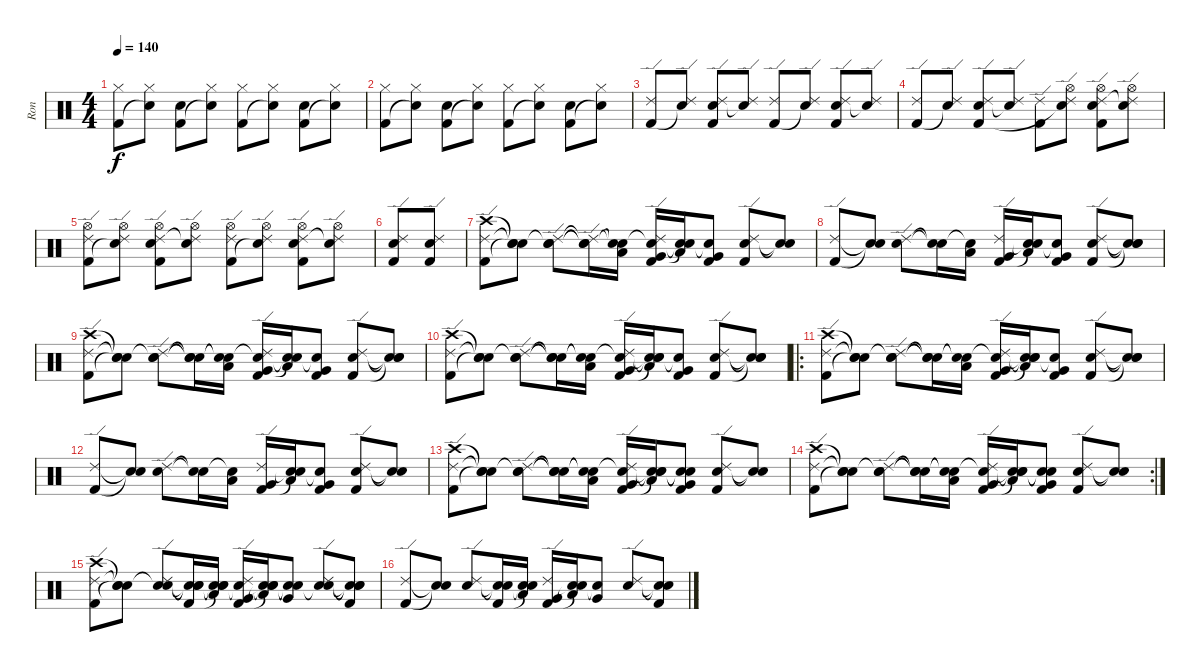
\track ("Ron" "Ron") {instrument percussion}
\staff {score}
\articulation defaults
\ts (4 4)
\tempo 140
\clef neutral
\ks c
("Hi-Hat (closed)" "Kick (hit) 2").8{dy f} ("Hi-Hat (closed)" "Snare (hit)"{t}).8 ("Electric Snare (hit)" "Kick (hit) 2").8 ("Hi-Hat (closed)" "Snare (hit)"{t}).8 ("Hi-Hat (closed)" "Kick (hit) 2").8 ("Hi-Hat (closed)" "Snare (hit)"{t}).8 ("Electric Snare (hit)" "Kick (hit) 2").8 ("Hi-Hat (closed)" "Snare (hit)"{t}).8 |
("Hi-Hat (closed)" "Kick (hit) 2").8 ("Hi-Hat (closed)" "Snare (hit)"{t}).8 ("Electric Snare (hit)" "Kick (hit) 2").8 ("Hi-Hat (closed)" "Snare (hit)"{t}).8 ("Hi-Hat (closed)" "Kick (hit) 2").8 ("Hi-Hat (closed)" "Snare (hit)"{t}).8 ("Electric Snare (hit)" "Kick (hit) 2").8 ("Hi-Hat (closed)" "Snare (hit)"{t}).8 |
("Ride (edge) 2" "Kick (hit) 2").8 ("Ride (edge) 2" "Snare (hit)"{t}).8 ("Electric Snare (hit)" "Ride (edge) 2" "Kick (hit) 2").8 ("Ride (edge) 2" "Snare (hit)"{t}).8 ("Ride (edge) 2" "Kick (hit) 2").8 ("Ride (edge) 2" "Snare (hit)"{t}).8 ("Electric Snare (hit)" "Ride (edge) 2" "Kick (hit) 2").8 ("Ride (edge) 2" "Snare (hit)"{t}).8 |
("Ride (edge) 2" "Kick (hit) 2").8 ("Ride (edge) 2" "Snare (hit)"{t}).8 ("Electric Snare (hit)" "Ride (edge) 2" "Kick (hit) 2").8 ("Ride (edge) 2" "Snare (hit)"{t}).8 ("Ride (edge) 2" "Kick (hit) 2").8 ("Hi-Hat (open)" "Ride (edge) 2" "Snare (hit)"{t}).8 ("Electric Snare (hit)" "Hi-Hat (open)" "Ride (edge) 2" "Kick (hit) 2").8 ("Hi-Hat (open)" "Ride (edge) 2" "Snare (hit)"{t}).8 |
("Hi-Hat (open)" "Ride (edge) 2" "Kick (hit) 2").8 ("Hi-Hat (open)" "Ride (edge) 2" "Snare (hit)"{t}).8 ("Electric Snare (hit)" "Hi-Hat (open)" "Ride (edge) 2" "Kick (hit) 2").8 ("Hi-Hat (open)" "Ride (edge) 2" "Snare (hit)"{t}).8 ("Hi-Hat (open)" "Ride (edge) 2" "Kick (hit) 2").8 ("Hi-Hat (open)" "Ride (edge) 2" "Snare (hit)"{t}).8 ("Electric Snare (hit)" "Hi-Hat (open)" "Ride (edge) 2" "Kick (hit) 2").8 ("Hi-Hat (open)" "Ride (edge) 2" "Snare (hit)"{t}).8 |
("Ride (edge) 2" "Electric Snare (hit)" "Kick (hit) 2").8 ("Ride (edge) 2" "Electric Snare (hit)" "Kick (hit) 2").8 |
("Crash high (hit)" "Ride (edge) 2" "Kick (hit) 2").8 ("Snare (hit)"{t} "Snare (hit)"{t} "Snare (hit)"{t}).8 ("Snare (hit)"{t} "Ride (edge) 2" "Snare (hit) 2").8 ("Snare (hit)"{t} "Ride (edge) 2"{t} "Snare (hit)"{t}).16 ("Snare (hit)"{t} "Snare (hit)"{t} "Low Tom (hit)").16 ("Snare (hit)"{t} "Ride (edge) 2" "Very Low Tom (hit)" "Kick (hit) 2").16 ("Snare (hit)"{t} "Low Tom (hit)" "Snare (hit)"{t}).16 ("Snare (hit)"{t} "Very Low Tom (hit)" "Kick (hit) 2").8 ("Ride (edge) 2" "Snare (hit) 2" "Kick (hit) 2").8 ("Snare (hit)"{t} "Snare (hit)"{t}).8 |
("Ride (edge) 2" "Kick (hit) 2").8 ("Snare (hit)"{t} "Snare (hit)"{t}).8 ("Ride (edge) 2" "Snare (hit) 2").8 ("Snare (hit)"{t} "Snare (hit)"{t}).16 ("Snare (hit)"{t} "Low Tom (hit)").16 ("Ride (edge) 2" "Very Low Tom (hit)" "Kick (hit) 2").16 ("Snare (hit)"{t} "Low Tom (hit)" "Snare (hit)"{t}).16 ("Snare (hit)"{t} "Very Low Tom (hit)" "Kick (hit) 2").8 ("Ride (edge) 2" "Snare (hit) 2" "Kick (hit) 2").8 ("Snare (hit)"{t} "Snare (hit)"{t} "Snare (hit)"{t}).8 |
("Crash high (hit)" "Ride (edge) 2" "Kick (hit) 2").8 ("Snare (hit)"{t} "Snare (hit)"{t} "Snare (hit)"{t}).8 ("Snare (hit)"{t} "Ride (edge) 2" "Snare (hit) 2").8 ("Snare (hit)"{t} "Snare (hit)"{t} "Snare (hit)"{t}).16 ("Snare (hit)"{t} "Snare (hit)"{t} "Low Tom (hit)").16 ("Snare (hit)"{t} "Ride (edge) 2" "Very Low Tom (hit)" "Kick (hit) 2").16 ("Snare (hit)"{t} "Low Tom (hit)" "Snare (hit)"{t}).16 ("Snare (hit)"{t} "Very Low Tom (hit)" "Kick (hit) 2").8 ("Ride (edge) 2" "Snare (hit) 2" "Kick (hit) 2").8 ("Snare (hit)"{t} "Snare (hit)"{t} "Snare (hit)"{t}).8 |
("Crash high (hit)" "Ride (edge) 2" "Kick (hit) 2").8 ("Snare (hit)"{t} "Snare (hit)"{t} "Snare (hit)"{t}).8 ("Snare (hit)"{t} "Ride (edge) 2" "Snare (hit) 2").8 ("Snare (hit)"{t} "Snare (hit)"{t} "Snare (hit)"{t}).16 ("Snare (hit)"{t} "Snare (hit)"{t} "Low Tom (hit)").16 ("Snare (hit)"{t} "Ride (edge) 2" "Very Low Tom (hit)" "Kick (hit) 2").16 ("Snare (hit)"{t} "Snare (hit)"{t} "Low Tom (hit)" "Snare (hit)"{t}).16 ("Snare (hit)"{t} "Very Low Tom (hit)" "Kick (hit) 2").8 ("Ride (edge) 2" "Snare (hit) 2" "Kick (hit) 2").8 ("Snare (hit)"{t} "Snare (hit)"{t} "Snare (hit)"{t}).8 |
\ro
("Crash high (hit)" "Ride (edge) 2" "Kick (hit) 2").8 ("Snare (hit)"{t} "Snare (hit)"{t} "Snare (hit)"{t}).8 ("Snare (hit)"{t} "Ride (edge) 2" "Snare (hit) 2").8 ("Snare (hit)"{t} "Snare (hit)"{t} "Snare (hit)"{t}).16 ("Snare (hit)"{t} "Snare (hit)"{t} "Low Tom (hit)").16 ("Snare (hit)"{t} "Ride (edge) 2" "Very Low Tom (hit)" "Kick (hit) 2").16 ("Snare (hit)"{t} "Snare (hit)"{t} "Low Tom (hit)" "Snare (hit)"{t}).16 ("Snare (hit)"{t} "Very Low Tom (hit)" "Kick (hit) 2").8 ("Ride (edge) 2" "Snare (hit) 2" "Kick (hit) 2").8 ("Snare (hit)"{t} "Snare (hit)"{t} "Snare (hit)"{t}).8 |
("Ride (edge) 2" "Kick (hit) 2").8 ("Snare (hit)"{t} "Snare (hit)"{t}).8 ("Ride (edge) 2" "Snare (hit) 2").8 ("Snare (hit)"{t} "Snare (hit)"{t}).16 ("Snare (hit)"{t} "Low Tom (hit)").16 ("Ride (edge) 2" "Very Low Tom (hit)" "Kick (hit) 2").16 ("Snare (hit)"{t} "Low Tom (hit)" "Snare (hit)"{t}).16 ("Snare (hit)"{t} "Very Low Tom (hit)" "Kick (hit) 2").8 ("Ride (edge) 2" "Snare (hit) 2" "Kick (hit) 2").8 ("Snare (hit)"{t} "Snare (hit)"{t}).8 |
("Crash high (hit)" "Ride (edge) 2" "Kick (hit) 2").8 ("Snare (hit)"{t} "Snare (hit)"{t} "Snare (hit)"{t}).8 ("Snare (hit)"{t} "Ride (edge) 2" "Snare (hit) 2").8 ("Snare (hit)"{t} "Snare (hit)"{t} "Snare (hit)"{t}).16 ("Snare (hit)"{t} "Snare (hit)"{t} "Low Tom (hit)").16 ("Snare (hit)"{t} "Ride (edge) 2" "Very Low Tom (hit)" "Kick (hit) 2").16 ("Snare (hit)"{t} "Snare (hit)"{t} "Low Tom (hit)" "Snare (hit)"{t}).16 ("Snare (hit)"{t} "Snare (hit)"{t} "Very Low Tom (hit)" "Kick (hit) 2").8 ("Ride (edge) 2" "Snare (hit) 2" "Kick (hit) 2").8 ("Snare (hit)"{t} "Snare (hit)"{t}).8 |
\rc 2
("Crash high (hit)" "Ride (edge) 2" "Kick (hit) 2").8 ("Snare (hit)"{t} "Snare (hit)"{t} "Snare (hit)"{t}).8 ("Snare (hit)"{t} "Ride (edge) 2" "Snare (hit) 2").8 ("Snare (hit)"{t} "Snare (hit)"{t} "Snare (hit)"{t}).16 ("Snare (hit)"{t} "Snare (hit)"{t} "Low Tom (hit)").16 ("Snare (hit)"{t} "Ride (edge) 2" "Very Low Tom (hit)" "Kick (hit) 2").16 ("Snare (hit)"{t} "Snare (hit)"{t} "Low Tom (hit)" "Snare (hit)"{t}).16 ("Snare (hit)"{t} "Snare (hit)"{t} "Very Low Tom (hit)" "Kick (hit) 2").8 ("Ride (edge) 2" "Snare (hit) 2" "Kick (hit) 2").8 ("Snare (hit)"{t} "Snare (hit)"{t}).8 |
("Crash high (hit)" "Ride (edge) 2" "Kick (hit) 2").8 ("Snare (hit)"{t} "Snare (hit)"{t} "Snare (hit)"{t}).8 ("Snare (hit)"{t} "Ride (edge) 2" "Snare (hit) 2").8 ("Snare (hit)"{t} "Snare (hit)"{t} "Snare (hit)"{t} "Kick (hit) 2").16 ("Snare (hit)"{t} "Snare (hit)"{t} "Low Tom (hit)" "Snare (hit)"{t}).16 ("Snare (hit)"{t} "Ride (edge) 2" "Very Low Tom (hit)" "Kick (hit) 2").16 ("Snare (hit)"{t} "Snare (hit)"{t} "Low Tom (hit)" "Snare (hit)"{t}).16 ("Snare (hit)"{t} "Snare (hit)"{t} "Very Low Tom (hit)").8 ("Snare (hit)"{t} "Ride (edge) 2" "Snare (hit) 2").8 ("Snare (hit)"{t} "Snare (hit)"{t} "Snare (hit)"{t} "Kick (hit) 2").8 |
("Ride (edge) 2" "Kick (hit) 2").8 ("Snare (hit)"{t} "Snare (hit)"{t}).8 ("Ride (edge) 2" "Snare (hit) 2").8 ("Snare (hit)"{t} "Snare (hit)"{t} "Kick (hit) 2").16 ("Snare (hit)"{t} "Low Tom (hit)" "Snare (hit)"{t}).16 ("Ride (edge) 2" "Very Low Tom (hit)" "Kick (hit) 2").16 ("Snare (hit)"{t} "Low Tom (hit)" "Snare (hit)"{t}).16 ("Snare (hit)"{t} "Very Low Tom (hit)").8 ("Ride (edge) 2" "Snare (hit) 2").8 ("Snare (hit)"{t} "Snare (hit)"{t} "Kick (hit) 2").8
